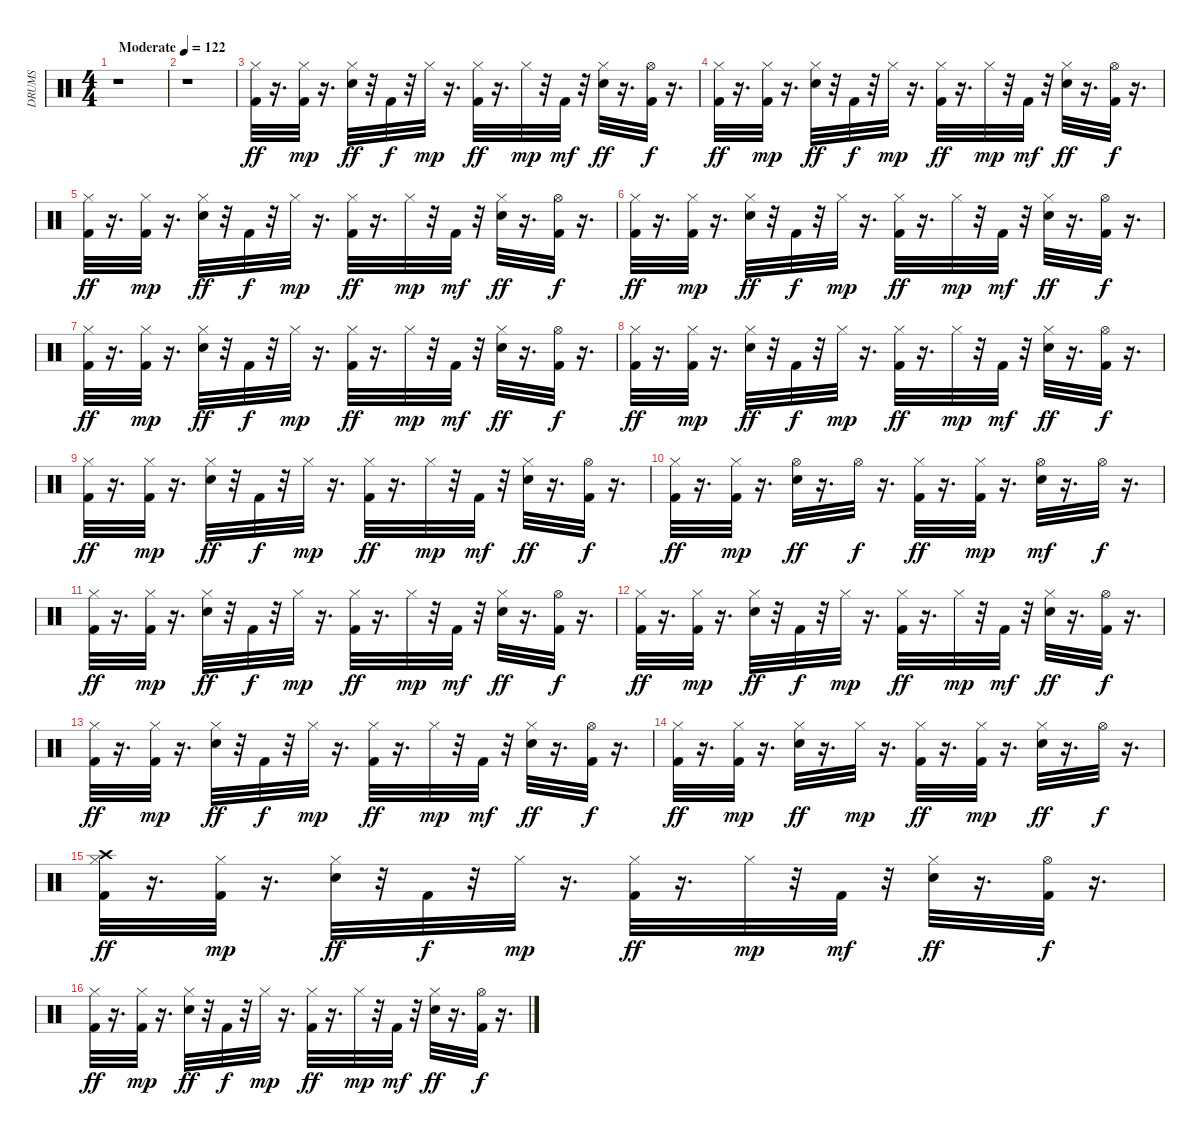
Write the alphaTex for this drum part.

\track ("DRUMS" "DRUMS") {instrument percussion}
\staff {score}
\articulation defaults
\ts (4 4)
\tempo (122 "Moderate")
\clef neutral
\ks c
r.1{dy ff} |
r.1 |
("Hi-Hat (closed)" "Kick (hit) 2").32 r.16{d} ("Kick (hit) 2" "Hi-Hat (closed)").32{dy mp} r.16{d} ("Hi-Hat (closed)" "Snare (hit) 2").32{dy ff} r.32 "Kick (hit) 2".32{dy f} r.32 "Hi-Hat (closed)".32{dy mp} r.16{d} ("Kick (hit) 2" "Hi-Hat (closed)").32{dy ff} r.16{d} "Hi-Hat (closed)".32{dy mp} r.32 "Kick (hit) 2".32{dy mf} r.32 ("Hi-Hat (closed)" "Snare (hit) 2").32{dy ff} r.16{d} ("Kick (hit) 2" "Hi-Hat (open)").32{dy f} r.16{d} |
("Hi-Hat (closed)" "Kick (hit) 2").32{dy ff} r.16{d} ("Hi-Hat (closed)" "Kick (hit) 2").32{dy mp} r.16{d} ("Snare (hit) 2" "Hi-Hat (closed)").32{dy ff} r.32 "Kick (hit) 2".32{dy f} r.32 "Hi-Hat (closed)".32{dy mp} r.16{d} ("Hi-Hat (closed)" "Kick (hit) 2").32{dy ff} r.16{d} "Hi-Hat (closed)".32{dy mp} r.32 "Kick (hit) 2".32{dy mf} r.32 ("Snare (hit) 2" "Hi-Hat (closed)").32{dy ff} r.16{d} ("Kick (hit) 2" "Hi-Hat (open)").32{dy f} r.16{d} |
("Hi-Hat (closed)" "Kick (hit) 2").32{dy ff} r.16{d} ("Kick (hit) 2" "Hi-Hat (closed)").32{dy mp} r.16{d} ("Snare (hit) 2" "Hi-Hat (closed)").32{dy ff} r.32 "Kick (hit) 2".32{dy f} r.32 "Hi-Hat (closed)".32{dy mp} r.16{d} ("Kick (hit) 2" "Hi-Hat (closed)").32{dy ff} r.16{d} "Hi-Hat (closed)".32{dy mp} r.32 "Kick (hit) 2".32{dy mf} r.32 ("Hi-Hat (closed)" "Snare (hit) 2").32{dy ff} r.16{d} ("Hi-Hat (open)" "Kick (hit) 2").32{dy f} r.16{d} |
("Hi-Hat (closed)" "Kick (hit) 2").32{dy ff} r.16{d} ("Kick (hit) 2" "Hi-Hat (closed)").32{dy mp} r.16{d} ("Hi-Hat (closed)" "Snare (hit) 2").32{dy ff} r.32 "Kick (hit) 2".32{dy f} r.32 "Hi-Hat (closed)".32{dy mp} r.16{d} ("Hi-Hat (closed)" "Kick (hit) 2").32{dy ff} r.16{d} "Hi-Hat (closed)".32{dy mp} r.32 "Kick (hit) 2".32{dy mf} r.32 ("Snare (hit) 2" "Hi-Hat (closed)").32{dy ff} r.16{d} ("Kick (hit) 2" "Hi-Hat (open)").32{dy f} r.16{d} |
("Kick (hit) 2" "Hi-Hat (closed)").32{dy ff} r.16{d} ("Hi-Hat (closed)" "Kick (hit) 2").32{dy mp} r.16{d} ("Hi-Hat (closed)" "Snare (hit) 2").32{dy ff} r.32 "Kick (hit) 2".32{dy f} r.32 "Hi-Hat (closed)".32{dy mp} r.16{d} ("Kick (hit) 2" "Hi-Hat (closed)").32{dy ff} r.16{d} "Hi-Hat (closed)".32{dy mp} r.32 "Kick (hit) 2".32{dy mf} r.32 ("Hi-Hat (closed)" "Snare (hit) 2").32{dy ff} r.16{d} ("Kick (hit) 2" "Hi-Hat (open)").32{dy f} r.16{d} |
("Hi-Hat (closed)" "Kick (hit) 2").32{dy ff} r.16{d} ("Hi-Hat (closed)" "Kick (hit) 2").32{dy mp} r.16{d} ("Snare (hit) 2" "Hi-Hat (closed)").32{dy ff} r.32 "Kick (hit) 2".32{dy f} r.32 "Hi-Hat (closed)".32{dy mp} r.16{d} ("Kick (hit) 2" "Hi-Hat (closed)").32{dy ff} r.16{d} "Hi-Hat (closed)".32{dy mp} r.32 "Kick (hit) 2".32{dy mf} r.32 ("Hi-Hat (closed)" "Snare (hit) 2").32{dy ff} r.16{d} ("Hi-Hat (open)" "Kick (hit) 2").32{dy f} r.16{d} |
("Kick (hit) 2" "Hi-Hat (closed)").32{dy ff} r.16{d} ("Hi-Hat (closed)" "Kick (hit) 2").32{dy mp} r.16{d} ("Hi-Hat (closed)" "Snare (hit) 2").32{dy ff} r.32 "Kick (hit) 2".32{dy f} r.32 "Hi-Hat (closed)".32{dy mp} r.16{d} ("Kick (hit) 2" "Hi-Hat (closed)").32{dy ff} r.16{d} "Hi-Hat (closed)".32{dy mp} r.32 "Kick (hit) 2".32{dy mf} r.32 ("Snare (hit) 2" "Hi-Hat (closed)").32{dy ff} r.16{d} ("Kick (hit) 2" "Hi-Hat (open)").32{dy f} r.16{d} |
("Kick (hit) 2" "Hi-Hat (closed)").32{dy ff} r.16{d} ("Hi-Hat (closed)" "Kick (hit) 2").32{dy mp} r.16{d} ("Hi-Hat (open)" "Snare (hit) 2").32{dy ff} r.16{d} "Hi-Hat (open)".32{dy f} r.16{d} ("Kick (hit) 2" "Hi-Hat (closed)").32{dy ff} r.16{d} ("Hi-Hat (closed)" "Kick (hit) 2").32{dy mp} r.16{d} ("Snare (hit) 2" "Hi-Hat (open)").32{dy mf} r.16{d} "Hi-Hat (open)".32{dy f} r.16{d} |
("Kick (hit) 2" "Hi-Hat (closed)").32{dy ff} r.16{d} ("Kick (hit) 2" "Hi-Hat (closed)").32{dy mp} r.16{d} ("Hi-Hat (closed)" "Snare (hit) 2").32{dy ff} r.32 "Kick (hit) 2".32{dy f} r.32 "Hi-Hat (closed)".32{dy mp} r.16{d} ("Kick (hit) 2" "Hi-Hat (closed)").32{dy ff} r.16{d} "Hi-Hat (closed)".32{dy mp} r.32 "Kick (hit) 2".32{dy mf} r.32 ("Snare (hit) 2" "Hi-Hat (closed)").32{dy ff} r.16{d} ("Kick (hit) 2" "Hi-Hat (open)").32{dy f} r.16{d} |
("Hi-Hat (closed)" "Kick (hit) 2").32{dy ff} r.16{d} ("Kick (hit) 2" "Hi-Hat (closed)").32{dy mp} r.16{d} ("Snare (hit) 2" "Hi-Hat (closed)").32{dy ff} r.32 "Kick (hit) 2".32{dy f} r.32 "Hi-Hat (closed)".32{dy mp} r.16{d} ("Hi-Hat (closed)" "Kick (hit) 2").32{dy ff} r.16{d} "Hi-Hat (closed)".32{dy mp} r.32 "Kick (hit) 2".32{dy mf} r.32 ("Hi-Hat (closed)" "Snare (hit) 2").32{dy ff} r.16{d} ("Hi-Hat (open)" "Kick (hit) 2").32{dy f} r.16{d} |
("Hi-Hat (closed)" "Kick (hit) 2").32{dy ff} r.16{d} ("Hi-Hat (closed)" "Kick (hit) 2").32{dy mp} r.16{d} ("Hi-Hat (closed)" "Snare (hit) 2").32{dy ff} r.32 "Kick (hit) 2".32{dy f} r.32 "Hi-Hat (closed)".32{dy mp} r.16{d} ("Kick (hit) 2" "Hi-Hat (closed)").32{dy ff} r.16{d} "Hi-Hat (closed)".32{dy mp} r.32 "Kick (hit) 2".32{dy mf} r.32 ("Hi-Hat (closed)" "Snare (hit) 2").32{dy ff} r.16{d} ("Kick (hit) 2" "Hi-Hat (open)").32{dy f} r.16{d} |
("Kick (hit) 2" "Hi-Hat (closed)").32{dy ff} r.16{d} ("Kick (hit) 2" "Hi-Hat (closed)").32{dy mp} r.16{d} ("Snare (hit) 2" "Hi-Hat (closed)").32{dy ff} r.16{d} "Hi-Hat (closed)".32{dy mp} r.16{d} ("Hi-Hat (closed)" "Kick (hit) 2").32{dy ff} r.16{d} ("Kick (hit) 2" "Hi-Hat (closed)").32{dy mp} r.16{d} ("Hi-Hat (closed)" "Snare (hit) 2").32{dy ff} r.16{d} "Hi-Hat (open)".32{dy f} r.16{d} |
("Kick (hit) 2" "Hi-Hat (closed)" "Crash high (hit)").32{dy ff} r.16{d} ("Hi-Hat (closed)" "Kick (hit) 2").32{dy mp} r.16{d} ("Snare (hit) 2" "Hi-Hat (closed)").32{dy ff} r.32 "Kick (hit) 2".32{dy f} r.32 "Hi-Hat (closed)".32{dy mp} r.16{d} ("Hi-Hat (closed)" "Kick (hit) 2").32{dy ff} r.16{d} "Hi-Hat (closed)".32{dy mp} r.32 "Kick (hit) 2".32{dy mf} r.32 ("Snare (hit) 2" "Hi-Hat (closed)").32{dy ff} r.16{d} ("Hi-Hat (open)" "Kick (hit) 2").32{dy f} r.16{d} |
("Kick (hit) 2" "Hi-Hat (closed)").32{dy ff} r.16{d} ("Kick (hit) 2" "Hi-Hat (closed)").32{dy mp} r.16{d} ("Hi-Hat (closed)" "Snare (hit) 2").32{dy ff} r.32 "Kick (hit) 2".32{dy f} r.32 "Hi-Hat (closed)".32{dy mp} r.16{d} ("Kick (hit) 2" "Hi-Hat (closed)").32{dy ff} r.16{d} "Hi-Hat (closed)".32{dy mp} r.32 "Kick (hit) 2".32{dy mf} r.32 ("Hi-Hat (closed)" "Snare (hit) 2").32{dy ff} r.16{d} ("Kick (hit) 2" "Hi-Hat (open)").32{dy f} r.16{d}
